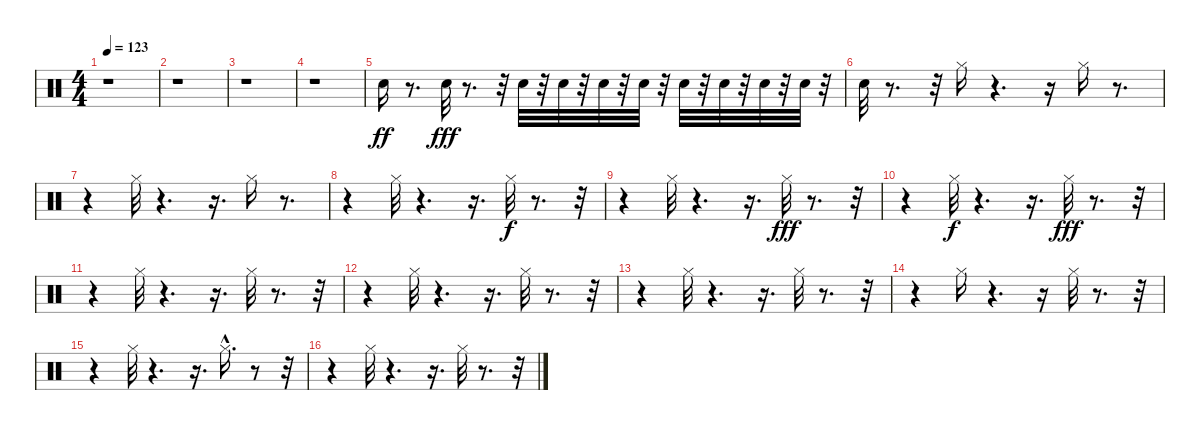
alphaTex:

\track "" {instrument percussion}
\staff {score}
\articulation defaults
\ts (4 4)
\tempo 123
\clef neutral
\ks c
r.1{dy ff} |
r.1 |
r.1 |
r.1 |
"Snare (hit) 2".16 r.8{d} "Snare (hit) 2".32{dy fff} r.8{d} r.32 "Snare (hit) 2".32 r.32 "Snare (hit) 2".32 r.32 "Snare (hit) 2".32 r.32 "Snare (hit) 2".32 r.32 "Snare (hit) 2".32 r.32 "Snare (hit) 2".32 r.32 "Snare (hit) 2".32 r.32 "Snare (hit) 2".32 r.32 |
"Snare (hit) 2".32 r.8{d} r.32 "Hi-Hat (closed)".16 r.4{d} r.16 "Hi-Hat (closed)".16 r.8{d} |
r.4 "Hi-Hat (closed)".32 r.4{d} r.16{d} "Hi-Hat (closed)".16 r.8{d} |
r.4 "Hi-Hat (closed)".32 r.4{d} r.16{d} "Hi-Hat (closed)".32{dy f} r.8{d} r.32 |
r.4 "Hi-Hat (closed)".32 r.4{d} r.16{d} "Hi-Hat (closed)".32{dy fff} r.8{d} r.32 |
r.4 "Hi-Hat (closed)".32{dy f} r.4{d} r.16{d} "Hi-Hat (closed)".32{dy fff} r.8{d} r.32 |
r.4 "Hi-Hat (closed)".32 r.4{d} r.16{d} "Hi-Hat (closed)".32 r.8{d} r.32 |
r.4 "Hi-Hat (closed)".32 r.4{d} r.16{d} "Hi-Hat (closed)".32 r.8{d} r.32 |
r.4 "Hi-Hat (closed)".32 r.4{d} r.16{d} "Hi-Hat (closed)".32 r.8{d} r.32 |
r.4 "Hi-Hat (closed)".16 r.4{d} r.16 "Hi-Hat (closed)".32 r.8{d} r.32 |
r.4 "Hi-Hat (closed)".32 r.4{d} r.16{d} "Hi-Hat (closed)"{hac}.16{d} r.8 r.32 |
r.4 "Hi-Hat (closed)".32 r.4{d} r.16{d} "Hi-Hat (closed)".32 r.8{d} r.32
